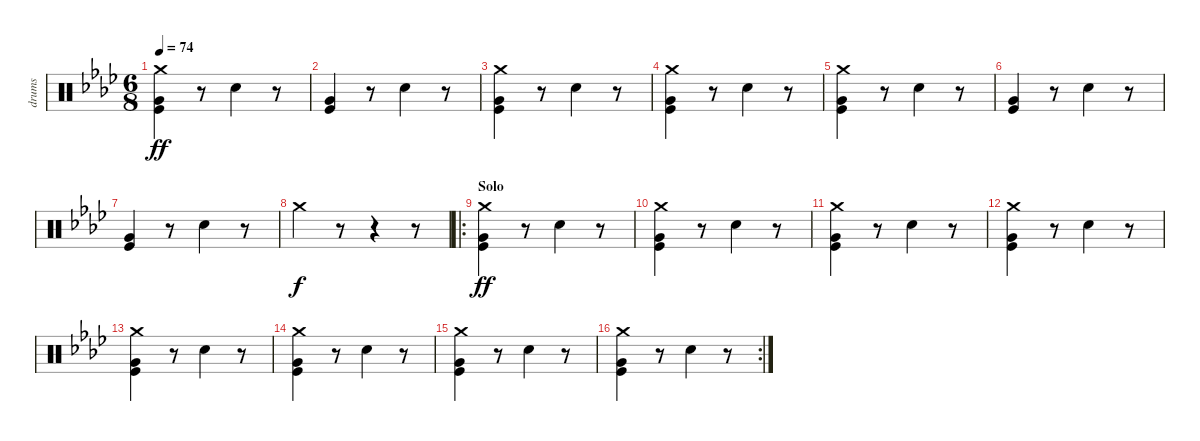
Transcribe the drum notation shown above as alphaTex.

\track ("drums" "drums") {instrument percussion}
\staff {score}
\articulation defaults
\ts (6 8)
\tempo 74
\clef neutral
\ks ab
("Crash medium (hit)" "Very Low Tom (hit)" "Kick (hit)").4{dy ff} r.8 "Electric Snare (hit)".4 r.8 |
("Very Low Tom (hit)" "Kick (hit)").4 r.8 "Electric Snare (hit)".4 r.8 |
("Crash medium (hit)" "Very Low Tom (hit)" "Kick (hit)").4 r.8 "Electric Snare (hit)".4 r.8 |
("Crash medium (hit)" "Very Low Tom (hit)" "Kick (hit)").4 r.8 "Electric Snare (hit)".4 r.8 |
("Crash medium (hit)" "Very Low Tom (hit)" "Kick (hit)").4 r.8 "Electric Snare (hit)".4 r.8 |
("Very Low Tom (hit)" "Kick (hit)").4 r.8 "Electric Snare (hit)".4 r.8 |
("Very Low Tom (hit)" "Kick (hit)").4 r.8 "Electric Snare (hit)".4 r.8 |
"Crash medium (hit)".4{dy f} r.8 r.4 r.8 |
\ro
\section ("" "Solo")
("Crash medium (hit)" "Very Low Tom (hit)" "Kick (hit)").4{dy ff volume 16} r.8 "Electric Snare (hit)".4 r.8 |
("Crash medium (hit)" "Very Low Tom (hit)" "Kick (hit)").4 r.8 "Electric Snare (hit)".4 r.8 |
("Crash medium (hit)" "Very Low Tom (hit)" "Kick (hit)").4 r.8 "Electric Snare (hit)".4 r.8 |
("Crash medium (hit)" "Very Low Tom (hit)" "Kick (hit)").4 r.8 "Electric Snare (hit)".4 r.8 |
("Crash medium (hit)" "Very Low Tom (hit)" "Kick (hit)").4 r.8 "Electric Snare (hit)".4 r.8 |
("Crash medium (hit)" "Very Low Tom (hit)" "Kick (hit)").4 r.8 "Electric Snare (hit)".4 r.8 |
("Crash medium (hit)" "Very Low Tom (hit)" "Kick (hit)").4 r.8 "Electric Snare (hit)".4 r.8 |
\rc 2
("Crash medium (hit)" "Very Low Tom (hit)" "Kick (hit)").4 r.8 "Electric Snare (hit)".4 r.8
